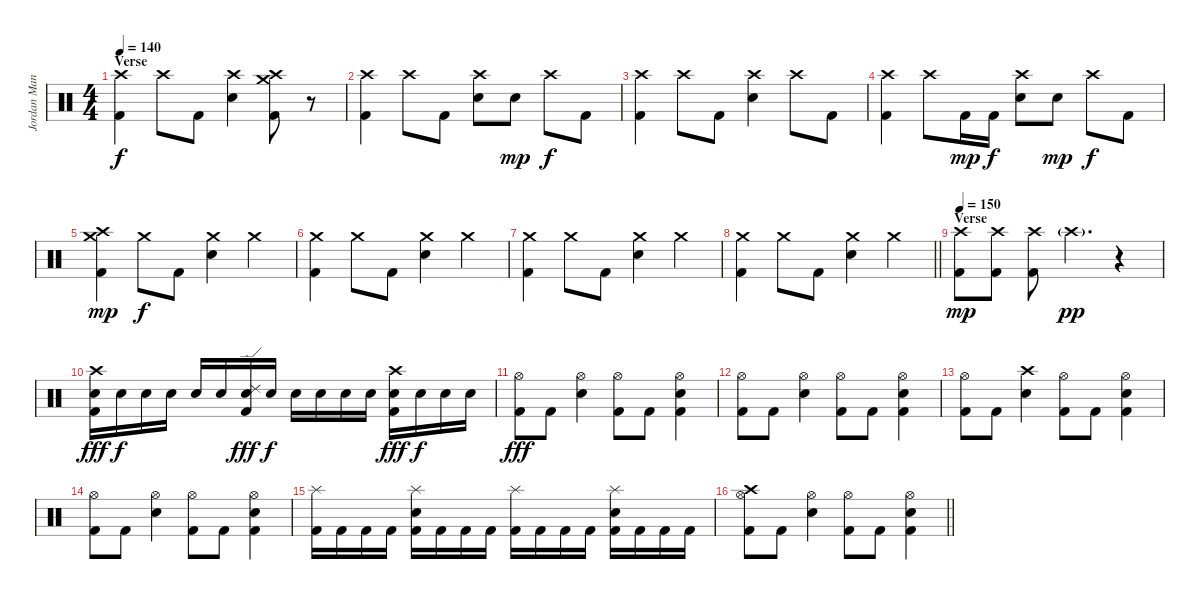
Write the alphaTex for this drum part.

\track ("Jordan Mancino" "Jordan Man") {instrument percussion}
\staff {score}
\articulation defaults
\ts (4 4)
\section ("" "Verse")
\tempo 140
\clef neutral
\ks c
("Crash high (hit)" "Kick (hit) 2").4{dy f} "Crash high (hit)".8 "Kick (hit) 2".8 ("Crash high (hit)" "Electric Snare (hit)").4 ("Crash high (hit)" "Crash medium (hit)" "Kick (hit) 2").8 r.8{volume 0} |
("Crash high (hit)" "Kick (hit) 2").4{volume 16} "Crash high (hit)".8 "Kick (hit) 2".8 ("Crash high (hit)" "Electric Snare (hit)").8 "Electric Snare (hit)".8{dy mp} "Crash high (hit)".8{dy f} "Kick (hit) 2".8 |
("Crash high (hit)" "Kick (hit) 2").4 "Crash high (hit)".8 "Kick (hit) 2".8 ("Crash high (hit)" "Electric Snare (hit)").4 "Crash high (hit)".8 "Kick (hit) 2".8 |
("Crash high (hit)" "Kick (hit) 2").4 "Crash high (hit)".8 "Kick (hit) 2".16{dy mp} "Kick (hit) 2".16{dy f} ("Crash high (hit)" "Electric Snare (hit)").8 "Electric Snare (hit)".8{dy mp} "Crash high (hit)".8{dy f} "Kick (hit) 2".8 |
("Crash medium (hit)" "Crash high (hit)" "Kick (hit) 2").4{dy mp} "Crash medium (hit)".8{dy f} "Kick (hit) 2".8 ("Crash medium (hit)" "Electric Snare (hit)").4 "Crash medium (hit)".4 |
("Crash medium (hit)" "Kick (hit) 2").4 "Crash medium (hit)".8 "Kick (hit) 2".8 ("Crash medium (hit)" "Electric Snare (hit)").4 "Crash medium (hit)".4 |
("Crash medium (hit)" "Kick (hit) 2").4 "Crash medium (hit)".8 "Kick (hit) 2".8 ("Crash medium (hit)" "Electric Snare (hit)").4 "Crash medium (hit)".4 |
\barLineRight lightlight
("Crash medium (hit)" "Kick (hit) 2").4 "Crash medium (hit)".8 "Kick (hit) 2".8 ("Crash medium (hit)" "Electric Snare (hit)").4 "Crash medium (hit)".4 |
\section ("" "Verse")
\tempo 150
("Crash high (hit)" "Kick (hit) 2").8{dy mp} ("Crash high (hit)" "Kick (hit) 2").8 ("Crash high (hit)" "Kick (hit) 2").8 "Crash high (hit)"{g}.4{d dy pp volume 0} r.4{volume 16} |
("Crash high (hit)" "Electric Snare (hit)" "Kick (hit) 2").16{dy fff} "Electric Snare (hit)".16{dy f} "Electric Snare (hit)".16 "Electric Snare (hit)".16 "Electric Snare (hit)".16 "Electric Snare (hit)".16 ("Ride (edge) 2" "Electric Snare (hit)" "Kick (hit) 2").16{dy fff} "Electric Snare (hit)".16{dy f} "Electric Snare (hit)".16 "Electric Snare (hit)".16 "Electric Snare (hit)".16 "Electric Snare (hit)".16 ("Crash high (hit)" "Electric Snare (hit)" "Kick (hit) 2").16{dy fff} "Electric Snare (hit)".16{dy f} "Electric Snare (hit)".16 "Electric Snare (hit)".16 |
("Hi-Hat (open)" "Kick (hit) 2").8{dy fff} "Kick (hit) 2".8 ("Hi-Hat (open)" "Electric Snare (hit)").4 ("Hi-Hat (open)" "Kick (hit) 2").8 "Kick (hit) 2".8 ("Hi-Hat (open)" "Electric Snare (hit)" "Kick (hit) 2").4 |
("Hi-Hat (open)" "Kick (hit) 2").8 "Kick (hit) 2".8 ("Hi-Hat (open)" "Electric Snare (hit)").4 ("Hi-Hat (open)" "Kick (hit) 2").8 "Kick (hit) 2".8 ("Hi-Hat (open)" "Electric Snare (hit)" "Kick (hit) 2").4 |
("Hi-Hat (open)" "Kick (hit) 2").8 "Kick (hit) 2".8 ("Crash high (hit)" "Electric Snare (hit)").4 ("Hi-Hat (open)" "Kick (hit) 2").8 "Kick (hit) 2".8 ("Hi-Hat (open)" "Electric Snare (hit)" "Kick (hit) 2").4 |
("Hi-Hat (open)" "Kick (hit) 2").8 "Kick (hit) 2".8 ("Hi-Hat (open)" "Electric Snare (hit)").4 ("Hi-Hat (open)" "Kick (hit) 2").8 "Kick (hit) 2".8 ("Hi-Hat (open)" "Electric Snare (hit)" "Kick (hit) 2").4 |
("Splash (hit)" "Kick (hit) 2").16 "Kick (hit) 2".16 "Kick (hit) 2".16 "Kick (hit) 2".16 ("Splash (hit)" "Electric Snare (hit)" "Kick (hit) 2").16 "Kick (hit) 2".16 "Kick (hit) 2".16 "Kick (hit) 2".16 ("Splash (hit)" "Kick (hit) 2").16 "Kick (hit) 2".16 "Kick (hit) 2".16 "Kick (hit) 2".16 ("Splash (hit)" "Electric Snare (hit)" "Kick (hit) 2").16 "Kick (hit) 2".16 "Kick (hit) 2".16 "Kick (hit) 2".16 |
\barLineRight lightlight
("Crash high (hit)" "Hi-Hat (open)" "Kick (hit) 2").8 "Kick (hit) 2".8 ("Hi-Hat (open)" "Electric Snare (hit)").4 ("Hi-Hat (open)" "Kick (hit) 2").8 "Kick (hit) 2".8 ("Hi-Hat (open)" "Electric Snare (hit)" "Kick (hit) 2").4
